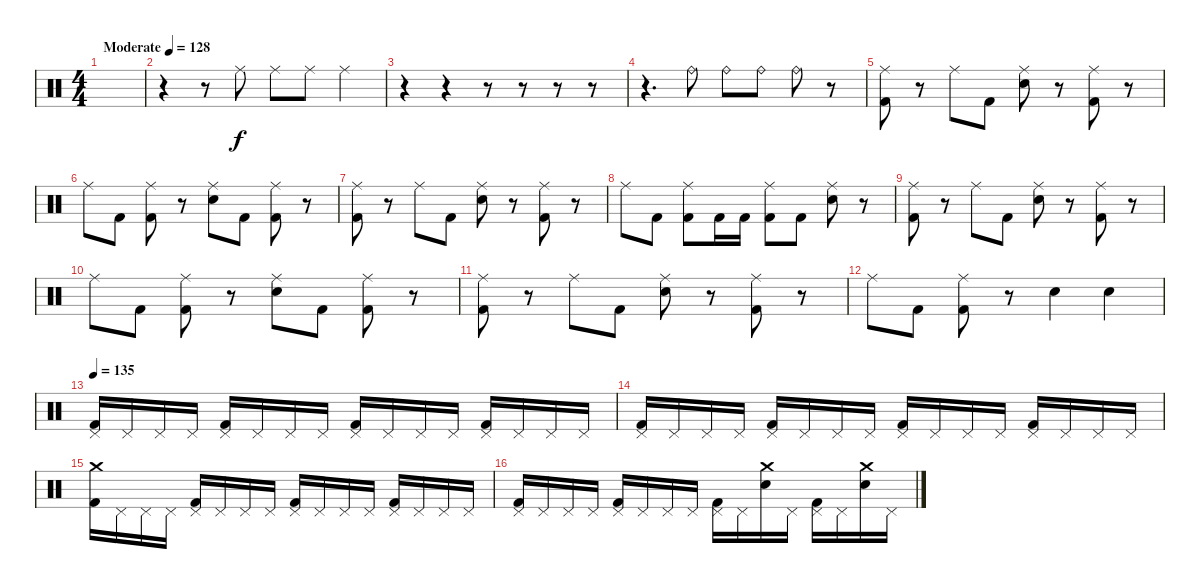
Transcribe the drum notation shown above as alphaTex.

\track "" {instrument percussion}
\staff {score}
\articulation defaults
\ts (4 4)
\tempo (128 "Moderate")
\clef neutral
\ks c
|
r.4 r.8 "Ride (middle)".8 "Ride (middle)".8 "Ride (middle)".8 "Ride (middle)".4 |
r.4 r.4 r.8 r.8 r.8 r.8 |
r.4{d} "Ride (bell)".8 "Ride (bell)".8 "Ride (bell)".8 "Ride (bell)".8 r.8 |
("Kick (hit) 2" "Ride (middle)").8 r.8 "Ride (middle)".8 "Kick (hit) 2".8 ("Electric Snare (hit)" "Ride (middle)").8 r.8 ("Kick (hit) 2" "Ride (middle)").8 r.8 |
"Ride (middle)".8 "Kick (hit) 2".8 ("Kick (hit) 2" "Ride (middle)").8 r.8 ("Electric Snare (hit)" "Ride (middle)").8 "Kick (hit) 2".8 ("Kick (hit) 2" "Ride (middle)").8 r.8 |
("Kick (hit) 2" "Ride (middle)").8 r.8 "Ride (middle)".8 "Kick (hit) 2".8 ("Electric Snare (hit)" "Ride (middle)").8 r.8 ("Kick (hit) 2" "Ride (middle)").8 r.8 |
"Ride (middle)".8 "Kick (hit) 2".8 ("Kick (hit) 2" "Ride (middle)").8 "Kick (hit) 2".16 "Kick (hit) 2".16 ("Kick (hit) 2" "Ride (middle)").8 "Kick (hit) 2".8 ("Electric Snare (hit)" "Ride (middle)").8 r.8 |
("Kick (hit) 2" "Ride (middle)").8 r.8 "Ride (middle)".8 "Kick (hit) 2".8 ("Electric Snare (hit)" "Ride (middle)").8 r.8 ("Kick (hit) 2" "Ride (middle)").8 r.8 |
"Ride (middle)".8 "Kick (hit) 2".8 ("Kick (hit) 2" "Ride (middle)").8 r.8 ("Electric Snare (hit)" "Ride (middle)").8 "Kick (hit) 2".8 ("Kick (hit) 2" "Ride (middle)").8 r.8 |
("Kick (hit) 2" "Ride (middle)").8 r.8 "Ride (middle)".8 "Kick (hit) 2".8 ("Electric Snare (hit)" "Ride (middle)").8 r.8 ("Kick (hit) 2" "Ride (middle)").8 r.8 |
"Ride (middle)".8 "Kick (hit) 2".8 ("Kick (hit) 2" "Ride (middle)").8 r.8 "Electric Snare (hit)".4 "Electric Snare (hit)".4 |
\tempo 135
("Kick (hit) 2" "Pedal Hi-Hat (hit)").16 "Pedal Hi-Hat (hit)".16 "Pedal Hi-Hat (hit)".16 "Pedal Hi-Hat (hit)".16 ("Kick (hit) 2" "Pedal Hi-Hat (hit)").16 "Pedal Hi-Hat (hit)".16 "Pedal Hi-Hat (hit)".16 "Pedal Hi-Hat (hit)".16 ("Kick (hit) 2" "Pedal Hi-Hat (hit)").16 "Pedal Hi-Hat (hit)".16 "Pedal Hi-Hat (hit)".16 "Pedal Hi-Hat (hit)".16 ("Kick (hit) 2" "Pedal Hi-Hat (hit)").16 "Pedal Hi-Hat (hit)".16 "Pedal Hi-Hat (hit)".16 "Pedal Hi-Hat (hit)".16 |
("Kick (hit) 2" "Pedal Hi-Hat (hit)").16 "Pedal Hi-Hat (hit)".16 "Pedal Hi-Hat (hit)".16 "Pedal Hi-Hat (hit)".16 ("Kick (hit) 2" "Pedal Hi-Hat (hit)").16 "Pedal Hi-Hat (hit)".16 "Pedal Hi-Hat (hit)".16 "Pedal Hi-Hat (hit)".16 ("Kick (hit) 2" "Pedal Hi-Hat (hit)").16 "Pedal Hi-Hat (hit)".16 "Pedal Hi-Hat (hit)".16 "Pedal Hi-Hat (hit)".16 ("Kick (hit) 2" "Pedal Hi-Hat (hit)").16 "Pedal Hi-Hat (hit)".16 "Pedal Hi-Hat (hit)".16 "Pedal Hi-Hat (hit)".16 |
("Kick (hit) 2" "Crash medium (hit)").16 "Pedal Hi-Hat (hit)".16 "Pedal Hi-Hat (hit)".16 "Pedal Hi-Hat (hit)".16 ("Kick (hit) 2" "Pedal Hi-Hat (hit)").16 "Pedal Hi-Hat (hit)".16 "Pedal Hi-Hat (hit)".16 "Pedal Hi-Hat (hit)".16 ("Kick (hit) 2" "Pedal Hi-Hat (hit)").16 "Pedal Hi-Hat (hit)".16 "Pedal Hi-Hat (hit)".16 "Pedal Hi-Hat (hit)".16 ("Kick (hit) 2" "Pedal Hi-Hat (hit)").16 "Pedal Hi-Hat (hit)".16 "Pedal Hi-Hat (hit)".16 "Pedal Hi-Hat (hit)".16 |
("Kick (hit) 2" "Pedal Hi-Hat (hit)").16 "Pedal Hi-Hat (hit)".16 "Pedal Hi-Hat (hit)".16 "Pedal Hi-Hat (hit)".16 ("Kick (hit) 2" "Pedal Hi-Hat (hit)").16 "Pedal Hi-Hat (hit)".16 "Pedal Hi-Hat (hit)".16 "Pedal Hi-Hat (hit)".16 ("Kick (hit) 2" "Pedal Hi-Hat (hit)").16 "Pedal Hi-Hat (hit)".16 ("Electric Snare (hit)" "Crash medium (hit)").16 "Pedal Hi-Hat (hit)".16 ("Kick (hit) 2" "Pedal Hi-Hat (hit)").16 "Pedal Hi-Hat (hit)".16 ("Electric Snare (hit)" "Crash medium (hit)").16 "Pedal Hi-Hat (hit)".16
